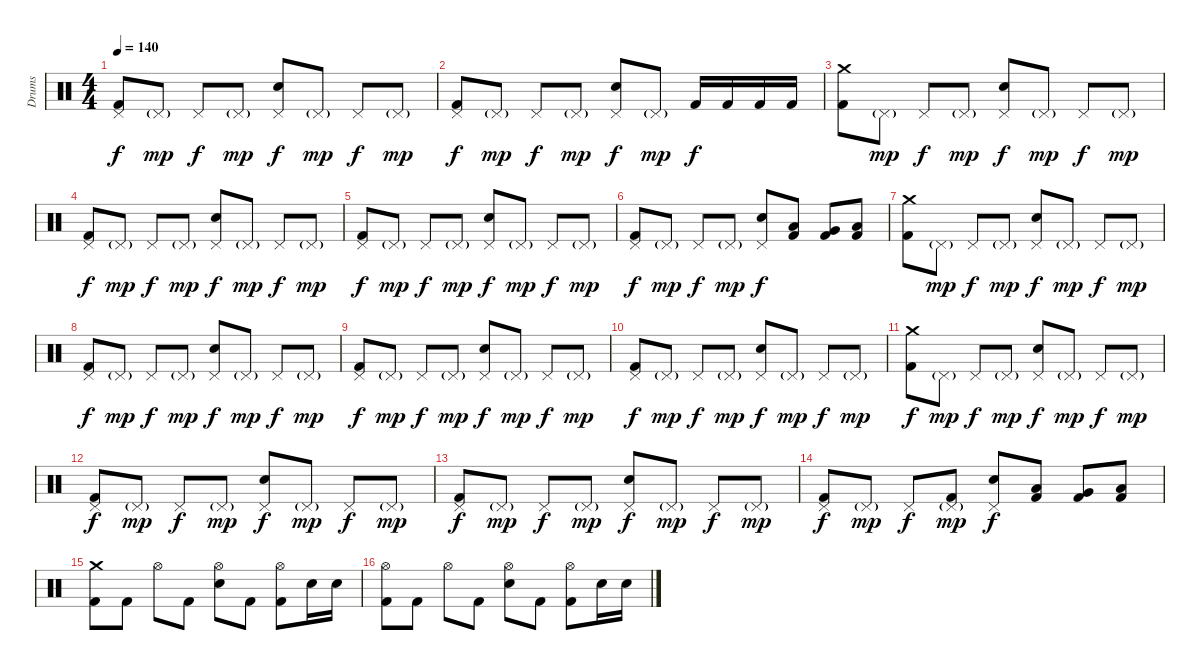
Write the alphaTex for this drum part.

\track ("Drums" "Drums") {instrument percussion}
\staff {score}
\articulation defaults
\ts (4 4)
\tempo 140
\clef neutral
\ks c
("Pedal Hi-Hat (hit)" "Kick (hit) 2").8{dy f} "Pedal Hi-Hat (hit)"{g}.8{dy mp} "Pedal Hi-Hat (hit)".8{dy f} "Pedal Hi-Hat (hit)"{g}.8{dy mp} ("Pedal Hi-Hat (hit)" "Electric Snare (hit)").8{dy f} "Pedal Hi-Hat (hit)"{g}.8{dy mp} "Pedal Hi-Hat (hit)".8{dy f} "Pedal Hi-Hat (hit)"{g}.8{dy mp} |
("Pedal Hi-Hat (hit)" "Kick (hit) 2").8{dy f} "Pedal Hi-Hat (hit)"{g}.8{dy mp} "Pedal Hi-Hat (hit)".8{dy f} "Pedal Hi-Hat (hit)"{g}.8{dy mp} ("Pedal Hi-Hat (hit)" "Electric Snare (hit)").8{dy f} "Pedal Hi-Hat (hit)"{g}.8{dy mp} "Kick (hit) 2".16{dy f} "Kick (hit) 2".16 "Kick (hit) 2".16 "Kick (hit) 2".16 |
("Crash medium (hit)" "Kick (hit) 2").8 "Pedal Hi-Hat (hit)"{g}.8{dy mp} "Pedal Hi-Hat (hit)".8{dy f} "Pedal Hi-Hat (hit)"{g}.8{dy mp} ("Pedal Hi-Hat (hit)" "Electric Snare (hit)").8{dy f} "Pedal Hi-Hat (hit)"{g}.8{dy mp} "Pedal Hi-Hat (hit)".8{dy f} "Pedal Hi-Hat (hit)"{g}.8{dy mp} |
("Pedal Hi-Hat (hit)" "Kick (hit) 2").8{dy f} "Pedal Hi-Hat (hit)"{g}.8{dy mp} "Pedal Hi-Hat (hit)".8{dy f} "Pedal Hi-Hat (hit)"{g}.8{dy mp} ("Pedal Hi-Hat (hit)" "Electric Snare (hit)").8{dy f} "Pedal Hi-Hat (hit)"{g}.8{dy mp} "Pedal Hi-Hat (hit)".8{dy f} "Pedal Hi-Hat (hit)"{g}.8{dy mp} |
("Pedal Hi-Hat (hit)" "Kick (hit) 2").8{dy f} "Pedal Hi-Hat (hit)"{g}.8{dy mp} "Pedal Hi-Hat (hit)".8{dy f} "Pedal Hi-Hat (hit)"{g}.8{dy mp} ("Pedal Hi-Hat (hit)" "Electric Snare (hit)").8{dy f} "Pedal Hi-Hat (hit)"{g}.8{dy mp} "Pedal Hi-Hat (hit)".8{dy f} "Pedal Hi-Hat (hit)"{g}.8{dy mp} |
("Pedal Hi-Hat (hit)" "Kick (hit) 2").8{dy f} "Pedal Hi-Hat (hit)"{g}.8{dy mp} "Pedal Hi-Hat (hit)".8{dy f} "Pedal Hi-Hat (hit)"{g}.8{dy mp} ("Pedal Hi-Hat (hit)" "Electric Snare (hit)").8{dy f} ("Low Tom (hit)" "Kick (hit) 2").8 ("Very Low Tom (hit)" "Kick (hit) 2").8 ("Low Floor Tom (hit)" "Kick (hit) 2").8 |
("Crash medium (hit)" "Kick (hit) 2").8 "Pedal Hi-Hat (hit)"{g}.8{dy mp} "Pedal Hi-Hat (hit)".8{dy f} "Pedal Hi-Hat (hit)"{g}.8{dy mp} ("Pedal Hi-Hat (hit)" "Electric Snare (hit)").8{dy f} "Pedal Hi-Hat (hit)"{g}.8{dy mp} "Pedal Hi-Hat (hit)".8{dy f} "Pedal Hi-Hat (hit)"{g}.8{dy mp} |
("Pedal Hi-Hat (hit)" "Kick (hit) 2").8{dy f} "Pedal Hi-Hat (hit)"{g}.8{dy mp} "Pedal Hi-Hat (hit)".8{dy f} "Pedal Hi-Hat (hit)"{g}.8{dy mp} ("Pedal Hi-Hat (hit)" "Electric Snare (hit)").8{dy f} "Pedal Hi-Hat (hit)"{g}.8{dy mp} "Pedal Hi-Hat (hit)".8{dy f} "Pedal Hi-Hat (hit)"{g}.8{dy mp} |
("Pedal Hi-Hat (hit)" "Kick (hit) 2").8{dy f} "Pedal Hi-Hat (hit)"{g}.8{dy mp} "Pedal Hi-Hat (hit)".8{dy f} "Pedal Hi-Hat (hit)"{g}.8{dy mp} ("Pedal Hi-Hat (hit)" "Electric Snare (hit)").8{dy f} "Pedal Hi-Hat (hit)"{g}.8{dy mp} "Pedal Hi-Hat (hit)".8{dy f} "Pedal Hi-Hat (hit)"{g}.8{dy mp} |
("Pedal Hi-Hat (hit)" "Kick (hit) 2").8{dy f} "Pedal Hi-Hat (hit)"{g}.8{dy mp} "Pedal Hi-Hat (hit)".8{dy f} "Pedal Hi-Hat (hit)"{g}.8{dy mp} ("Pedal Hi-Hat (hit)" "Electric Snare (hit)").8{dy f} "Pedal Hi-Hat (hit)"{g}.8{dy mp} "Pedal Hi-Hat (hit)".8{dy f} "Pedal Hi-Hat (hit)"{g}.8{dy mp} |
("Crash medium (hit)" "Kick (hit) 2").8{dy f} "Pedal Hi-Hat (hit)"{g}.8{dy mp} "Pedal Hi-Hat (hit)".8{dy f} "Pedal Hi-Hat (hit)"{g}.8{dy mp} ("Pedal Hi-Hat (hit)" "Electric Snare (hit)").8{dy f} "Pedal Hi-Hat (hit)"{g}.8{dy mp} "Pedal Hi-Hat (hit)".8{dy f} "Pedal Hi-Hat (hit)"{g}.8{dy mp} |
("Pedal Hi-Hat (hit)" "Kick (hit) 2").8{dy f} "Pedal Hi-Hat (hit)"{g}.8{dy mp} "Pedal Hi-Hat (hit)".8{dy f} "Pedal Hi-Hat (hit)"{g}.8{dy mp} ("Pedal Hi-Hat (hit)" "Electric Snare (hit)").8{dy f} "Pedal Hi-Hat (hit)"{g}.8{dy mp} "Pedal Hi-Hat (hit)".8{dy f} "Pedal Hi-Hat (hit)"{g}.8{dy mp} |
("Pedal Hi-Hat (hit)" "Kick (hit) 2").8{dy f} "Pedal Hi-Hat (hit)"{g}.8{dy mp} "Pedal Hi-Hat (hit)".8{dy f} "Pedal Hi-Hat (hit)"{g}.8{dy mp} ("Pedal Hi-Hat (hit)" "Electric Snare (hit)").8{dy f} "Pedal Hi-Hat (hit)"{g}.8{dy mp} "Pedal Hi-Hat (hit)".8{dy f} "Pedal Hi-Hat (hit)"{g}.8{dy mp} |
("Pedal Hi-Hat (hit)" "Kick (hit) 2").8{dy f} "Pedal Hi-Hat (hit)"{g}.8{dy mp} "Pedal Hi-Hat (hit)".8{dy f} ("Pedal Hi-Hat (hit)"{g} "Kick (hit) 2").8{dy mp} ("Pedal Hi-Hat (hit)" "Electric Snare (hit)").8{dy f} ("Low Tom (hit)" "Kick (hit) 2").8 ("Very Low Tom (hit)" "Kick (hit) 2").8 ("Low Floor Tom (hit)" "Kick (hit) 2").8 |
\section ("" "")
("Crash medium (hit)" "Kick (hit) 2").8 "Kick (hit) 2".8 "Hi-Hat (open)".8 "Kick (hit) 2".8 ("Hi-Hat (open)" "Electric Snare (hit)").8 "Kick (hit) 2".8 ("Hi-Hat (open)" "Kick (hit) 2").8 "Electric Snare (hit)".16 "Electric Snare (hit)".16 |
("Hi-Hat (open)" "Kick (hit) 2").8 "Kick (hit) 2".8 "Hi-Hat (open)".8 "Kick (hit) 2".8 ("Hi-Hat (open)" "Electric Snare (hit)").8 "Kick (hit) 2".8 ("Hi-Hat (open)" "Kick (hit) 2").8 "Electric Snare (hit)".16 "Electric Snare (hit)".16
